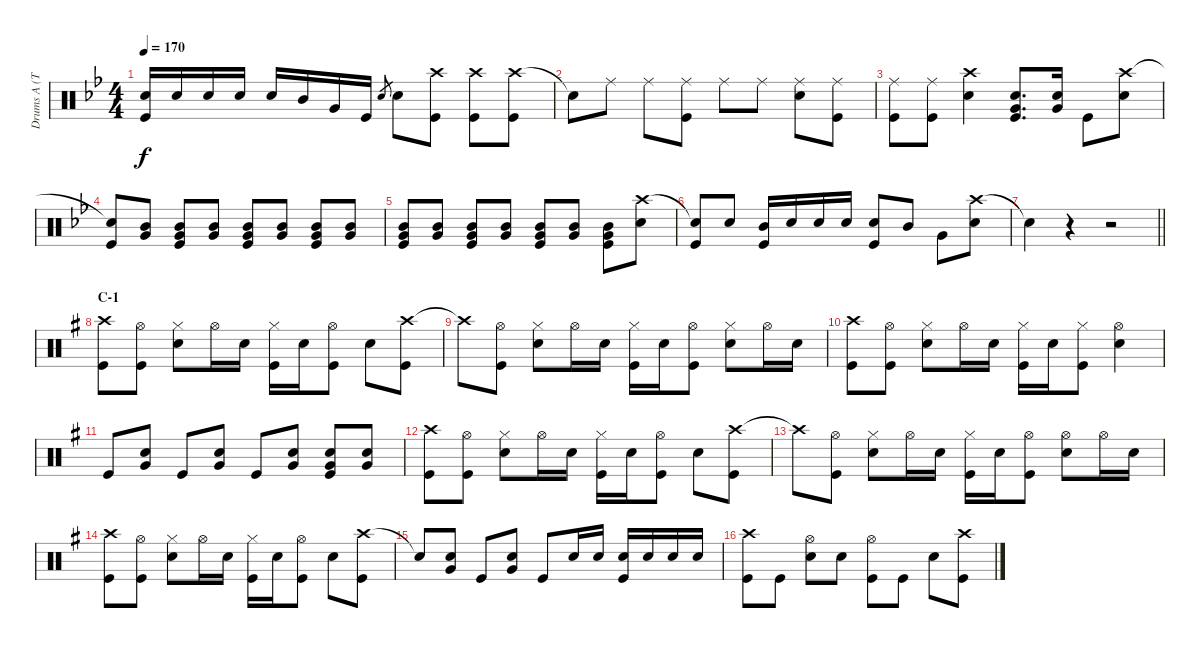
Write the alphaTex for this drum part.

\track ("Drums A (Tainaka Ritsu)" "Drums A (T") {instrument percussion}
\staff {score}
\articulation defaults
\ts (4 4)
\tempo 170
\clef neutral
\ks bb
("Snare (hit) 2" "Kick (hit)").16{dy f} "Snare (hit) 2".16 "Snare (hit) 2".16 "Snare (hit) 2".16 "Snare (hit) 2".16 "Mid Tom (hit)".16 "Very Low Tom (hit)".16 "Kick (hit)".16 "Snare (hit) 2".8{gr} "Snare (hit) 2".8 ("Crash high (hit)" "Kick (hit)").8 ("Crash high (hit)" "Kick (hit)").8 ("Crash high (hit)" "Kick (hit)").8 |
"Snare (hit)"{t}.8 "Ride (middle)".8 "Ride (middle)".8 ("Ride (middle)" "Kick (hit)").8 "Ride (middle)".8 "Ride (middle)".8 ("Ride (middle)" "Snare (hit) 2").8 ("Ride (middle)" "Kick (hit)").8 |
("Ride (middle)" "Kick (hit)").8 ("Ride (middle)" "Kick (hit)").8 ("Crash high (hit)" "Snare (hit) 2").4 ("Snare (hit) 2" "Very Low Tom (hit)" "Kick (hit)").8{d} ("Snare (hit) 2" "Very Low Tom (hit)").16 "Kick (hit)".8 ("Crash high (hit)" "Snare (hit) 2").8 |
("Snare (hit)"{t} "Kick (hit)").8 ("Mid Tom (hit)" "Very Low Tom (hit)").8 ("Mid Tom (hit)" "Very Low Tom (hit)" "Kick (hit)").8 ("Mid Tom (hit)" "Very Low Tom (hit)").8 ("Mid Tom (hit)" "Very Low Tom (hit)" "Kick (hit)").8 ("Mid Tom (hit)" "Very Low Tom (hit)").8 ("Mid Tom (hit)" "Very Low Tom (hit)" "Kick (hit)").8 ("Mid Tom (hit)" "Very Low Tom (hit)").8 |
("Mid Tom (hit)" "Very Low Tom (hit)" "Kick (hit)").8 ("Mid Tom (hit)" "Very Low Tom (hit)").8 ("Mid Tom (hit)" "Very Low Tom (hit)" "Kick (hit)").8 ("Mid Tom (hit)" "Very Low Tom (hit)").8 ("Mid Tom (hit)" "Very Low Tom (hit)" "Kick (hit)").8 ("Mid Tom (hit)" "Very Low Tom (hit)").8 ("Mid Tom (hit)" "Very Low Tom (hit)" "Kick (hit)").8 ("Crash high (hit)" "Snare (hit) 2").8 |
("Snare (hit)"{t} "Kick (hit)").8 "Snare (hit) 2".8 ("Mid Tom (hit)" "Kick (hit)").16 "Snare (hit) 2".16 "Snare (hit) 2".16 "Snare (hit) 2".16 ("Snare (hit) 2" "Kick (hit)").8 "Mid Tom (hit)".8 "Very Low Tom (hit)".8 ("Crash high (hit)" "Snare (hit) 2").8 |
\barLineRight lightlight "Snare (hit)"{t}.4
r.4 r.2 |
\section ("" "C-1")
\ks g
("Crash high (hit)" "Kick (hit)").8 ("Hi-Hat (open)" "Kick (hit)").8 ("Hi-Hat (closed)" "Snare (hit) 2").8 "Hi-Hat (open)".16 "Snare (hit) 2".16 ("Hi-Hat (closed)" "Kick (hit)").16 "Snare (hit) 2".16 ("Hi-Hat (open)" "Kick (hit)").8 "Snare (hit) 2".8 ("Crash high (hit)" "Kick (hit)").8 |
"Crash high (hit)"{t}.8 ("Hi-Hat (open)" "Kick (hit)").8 ("Hi-Hat (closed)" "Snare (hit) 2").8 "Hi-Hat (open)".16 "Snare (hit) 2".16 ("Hi-Hat (closed)" "Kick (hit)").16 "Snare (hit) 2".16 ("Hi-Hat (open)" "Kick (hit)").8 ("Hi-Hat (closed)" "Snare (hit) 2").8 "Hi-Hat (open)".16 "Snare (hit) 2".16 |
("Crash high (hit)" "Kick (hit)").8 ("Hi-Hat (open)" "Kick (hit)").8 ("Hi-Hat (closed)" "Snare (hit) 2").8 "Hi-Hat (open)".16 "Snare (hit) 2".16 ("Hi-Hat (closed)" "Kick (hit)").16 "Snare (hit) 2".16 ("Hi-Hat (closed)" "Kick (hit)").8 ("Hi-Hat (open)" "Snare (hit) 2").4 |
"Kick (hit)".8 ("Snare (hit) 2" "Very Low Tom (hit)").8 "Kick (hit)".8 ("Snare (hit) 2" "Very Low Tom (hit)").8 "Kick (hit)".8 ("Snare (hit) 2" "Very Low Tom (hit)").8 ("Snare (hit) 2" "Very Low Tom (hit)" "Kick (hit)").8 ("Snare (hit) 2" "Very Low Tom (hit)").8 |
("Crash high (hit)" "Kick (hit)").8 ("Hi-Hat (open)" "Kick (hit)").8 ("Hi-Hat (closed)" "Snare (hit) 2").8 "Hi-Hat (open)".16 "Snare (hit) 2".16 ("Hi-Hat (closed)" "Kick (hit)").16 "Snare (hit) 2".16 ("Hi-Hat (open)" "Kick (hit)").8 "Snare (hit) 2".8 ("Crash high (hit)" "Kick (hit)").8 |
"Crash high (hit)"{t}.8 ("Hi-Hat (open)" "Kick (hit)").8 ("Hi-Hat (closed)" "Snare (hit) 2").8 "Hi-Hat (open)".16 "Snare (hit) 2".16 ("Hi-Hat (closed)" "Kick (hit)").16 "Snare (hit) 2".16 ("Hi-Hat (open)" "Kick (hit)").8 ("Hi-Hat (open)" "Snare (hit) 2").8 "Hi-Hat (open)".16 "Snare (hit) 2".16 |
("Crash high (hit)" "Kick (hit)").8 ("Hi-Hat (open)" "Kick (hit)").8 ("Hi-Hat (closed)" "Snare (hit) 2").8 "Hi-Hat (open)".16 "Snare (hit) 2".16 ("Hi-Hat (closed)" "Kick (hit)").16 "Snare (hit) 2".16 ("Hi-Hat (open)" "Kick (hit)").8 "Snare (hit) 2".8 ("Crash high (hit)" "Kick (hit)").8 |
"Snare (hit)"{t}.8 ("Snare (hit) 2" "Very Low Tom (hit)").8 "Kick (hit)".8 ("Snare (hit) 2" "Very Low Tom (hit)").8 "Kick (hit)".8 "Snare (hit) 2".16 "Snare (hit) 2".16 ("Snare (hit) 2" "Kick (hit)").16 "Snare (hit) 2".16 "Snare (hit) 2".16 "Snare (hit) 2".16 |
("Crash high (hit)" "Kick (hit)").8 "Kick (hit)".8 ("Hi-Hat (open)" "Snare (hit) 2").8 "Snare (hit) 2".8 ("Hi-Hat (open)" "Kick (hit)").8 "Kick (hit)".8 "Snare (hit) 2".8 ("Crash high (hit)" "Kick (hit)").8
